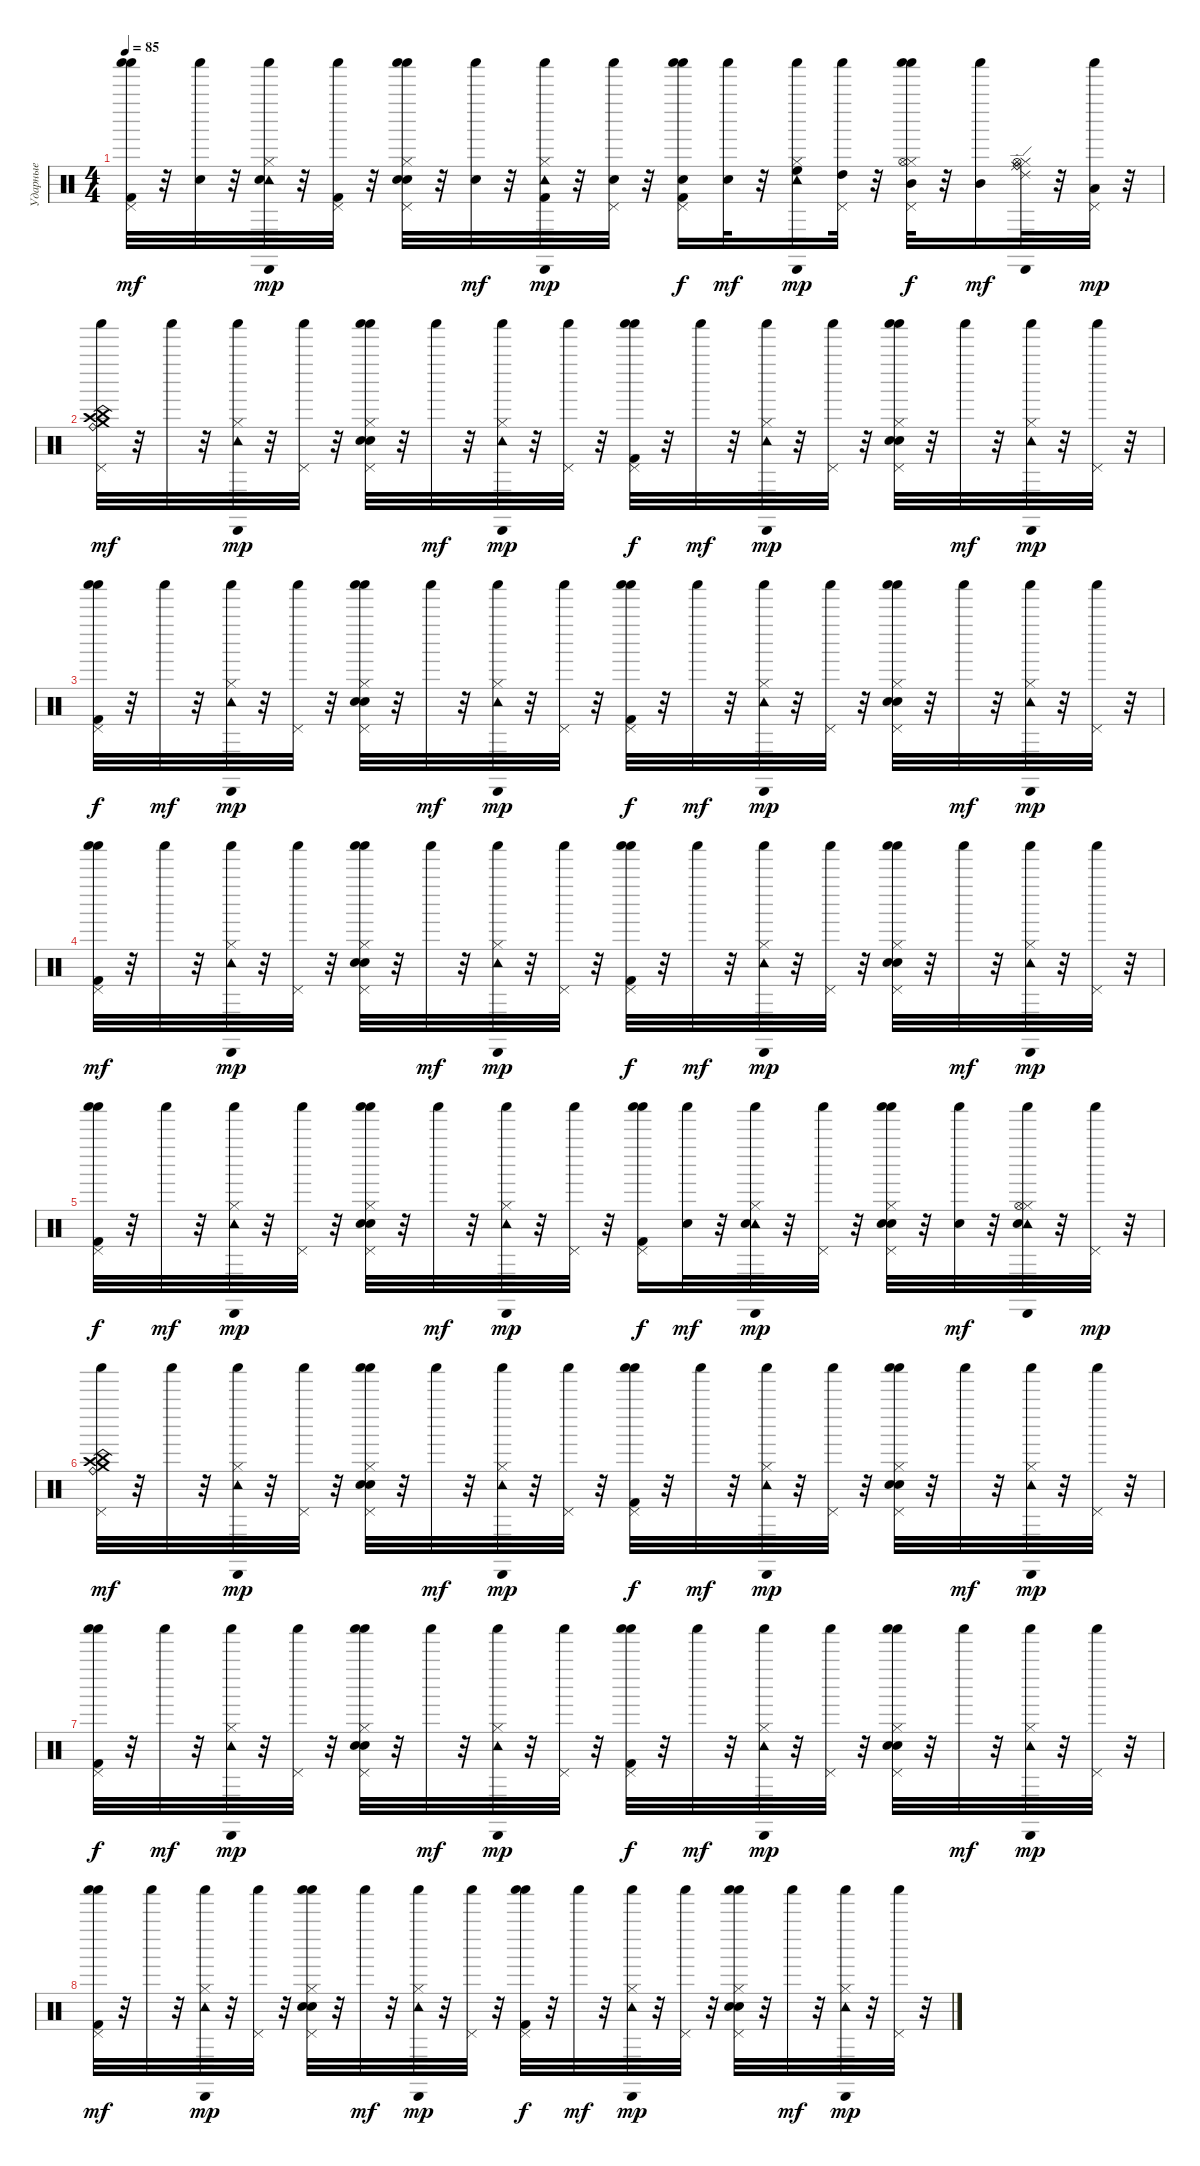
\track ("Ударные" "Ударные") {instrument percussion}
\staff {score}
\articulation defaults
\ts (4 4)
\tempo 85
\clef neutral
\ks c
("Pedal Hi-Hat (hit)" "Shaker (hit)" "Shaker (hit)" "Kick (hit) 2").32{dy mf} r.32 ("Shaker (hit)" "Snare (hit) 2").32 r.32 ("Hi-Hat (closed)" "Cabasa (hit)" "Shaker (hit)" "Tambourine (hit)" "Snare (hit) 2").32{dy mp} r.32 ("Pedal Hi-Hat (hit)" "Shaker (hit)" "Kick (hit) 2").32 r.32 ("Hi-Hat (closed)" "Pedal Hi-Hat (hit)" "Shaker (hit)" "Shaker (hit)" "Snare (hit) 2" "Electric Snare (hit)").32 r.32 ("Shaker (hit)" "Snare (hit) 2").32{dy mf} r.32 ("Hi-Hat (closed)" "Cabasa (hit)" "Shaker (hit)" "Kick (hit) 2" "Tambourine (hit)").32{dy mp} r.32 ("Pedal Hi-Hat (hit)" "Shaker (hit)" "Snare (hit) 2").32 r.32 ("Pedal Hi-Hat (hit)" "Shaker (hit)" "Shaker (hit)" "Kick (hit) 2" "Snare (hit) 2").16{dy f} ("Shaker (hit)" "Snare (hit) 2").32{dy mf} r.32 ("High Floor Tom (hit)" "Hi-Hat (closed)" "Cabasa (hit)" "Shaker (hit)" "Tambourine (hit)").16{dy mp} ("High Tom (hit)" "Pedal Hi-Hat (hit)" "Shaker (hit)").32 r.32 ("Mid Tom (hit)" "Hi-Hat (closed)" "Hi-Hat (open)" "Pedal Hi-Hat (hit)" "Shaker (hit)" "Shaker (hit)").32{dy f} r.32 ("Mid Tom (hit)" "Shaker (hit)").16{dy mf} ("Ride (middle)" "Ride (bell)" "Hi-Hat (closed)" "Hi-Hat (open)" "Ride (edge) 2" "Cabasa (hit)").32 r.32 ("Pedal Hi-Hat (hit)" "Shaker (hit)" "Low Floor Tom (hit)").32{dy mp} r.32 |
("Ride (bell)" "Crash high (hit)" "China (hit)" "Crash medium (hit)" "Pedal Hi-Hat (hit)" "Shaker (hit)").32{dy mf} r.32 "Shaker (hit)".32 r.32 ("Hi-Hat (closed)" "Cabasa (hit)" "Shaker (hit)" "Tambourine (hit)").32{dy mp} r.32 ("Pedal Hi-Hat (hit)" "Shaker (hit)").32 r.32 ("Hi-Hat (closed)" "Pedal Hi-Hat (hit)" "Shaker (hit)" "Shaker (hit)" "Snare (hit) 2" "Electric Snare (hit)").32 r.32 "Shaker (hit)".32{dy mf} r.32 ("Hi-Hat (closed)" "Cabasa (hit)" "Shaker (hit)" "Tambourine (hit)").32{dy mp} r.32 ("Pedal Hi-Hat (hit)" "Shaker (hit)").32 r.32 ("Pedal Hi-Hat (hit)" "Shaker (hit)" "Shaker (hit)" "Kick (hit) 2").32{dy f} r.32 "Shaker (hit)".32{dy mf} r.32 ("Hi-Hat (closed)" "Cabasa (hit)" "Shaker (hit)" "Tambourine (hit)").32{dy mp} r.32 ("Pedal Hi-Hat (hit)" "Shaker (hit)").32 r.32 ("Hi-Hat (closed)" "Pedal Hi-Hat (hit)" "Shaker (hit)" "Shaker (hit)" "Snare (hit) 2" "Electric Snare (hit)").32 r.32 "Shaker (hit)".32{dy mf} r.32 ("Hi-Hat (closed)" "Cabasa (hit)" "Shaker (hit)" "Tambourine (hit)").32{dy mp} r.32 ("Pedal Hi-Hat (hit)" "Shaker (hit)").32 r.32 |
("Pedal Hi-Hat (hit)" "Shaker (hit)" "Shaker (hit)" "Kick (hit) 2").32{dy f} r.32 "Shaker (hit)".32{dy mf} r.32 ("Hi-Hat (closed)" "Cabasa (hit)" "Shaker (hit)" "Tambourine (hit)").32{dy mp} r.32 ("Pedal Hi-Hat (hit)" "Shaker (hit)").32 r.32 ("Hi-Hat (closed)" "Pedal Hi-Hat (hit)" "Shaker (hit)" "Shaker (hit)" "Snare (hit) 2" "Electric Snare (hit)").32 r.32 "Shaker (hit)".32{dy mf} r.32 ("Hi-Hat (closed)" "Cabasa (hit)" "Shaker (hit)" "Tambourine (hit)").32{dy mp} r.32 ("Pedal Hi-Hat (hit)" "Shaker (hit)").32 r.32 ("Pedal Hi-Hat (hit)" "Shaker (hit)" "Shaker (hit)" "Kick (hit) 2").32{dy f} r.32 "Shaker (hit)".32{dy mf} r.32 ("Hi-Hat (closed)" "Cabasa (hit)" "Shaker (hit)" "Tambourine (hit)").32{dy mp} r.32 ("Pedal Hi-Hat (hit)" "Shaker (hit)").32 r.32 ("Hi-Hat (closed)" "Pedal Hi-Hat (hit)" "Shaker (hit)" "Shaker (hit)" "Snare (hit) 2" "Electric Snare (hit)").32 r.32 "Shaker (hit)".32{dy mf} r.32 ("Hi-Hat (closed)" "Cabasa (hit)" "Shaker (hit)" "Tambourine (hit)").32{dy mp} r.32 ("Pedal Hi-Hat (hit)" "Shaker (hit)").32 r.32 |
("Pedal Hi-Hat (hit)" "Shaker (hit)" "Shaker (hit)" "Kick (hit) 2").32{dy mf} r.32 "Shaker (hit)".32 r.32 ("Hi-Hat (closed)" "Cabasa (hit)" "Shaker (hit)" "Tambourine (hit)").32{dy mp} r.32 ("Pedal Hi-Hat (hit)" "Shaker (hit)").32 r.32 ("Hi-Hat (closed)" "Pedal Hi-Hat (hit)" "Shaker (hit)" "Shaker (hit)" "Snare (hit) 2" "Electric Snare (hit)").32 r.32 "Shaker (hit)".32{dy mf} r.32 ("Hi-Hat (closed)" "Cabasa (hit)" "Shaker (hit)" "Tambourine (hit)").32{dy mp} r.32 ("Pedal Hi-Hat (hit)" "Shaker (hit)").32 r.32 ("Pedal Hi-Hat (hit)" "Shaker (hit)" "Shaker (hit)" "Kick (hit) 2").32{dy f} r.32 "Shaker (hit)".32{dy mf} r.32 ("Hi-Hat (closed)" "Cabasa (hit)" "Shaker (hit)" "Tambourine (hit)").32{dy mp} r.32 ("Pedal Hi-Hat (hit)" "Shaker (hit)").32 r.32 ("Hi-Hat (closed)" "Pedal Hi-Hat (hit)" "Shaker (hit)" "Shaker (hit)" "Snare (hit) 2" "Electric Snare (hit)").32 r.32 "Shaker (hit)".32{dy mf} r.32 ("Hi-Hat (closed)" "Cabasa (hit)" "Shaker (hit)" "Tambourine (hit)").32{dy mp} r.32 ("Pedal Hi-Hat (hit)" "Shaker (hit)").32 r.32 |
("Pedal Hi-Hat (hit)" "Shaker (hit)" "Shaker (hit)" "Kick (hit) 2").32{dy f} r.32 "Shaker (hit)".32{dy mf} r.32 ("Hi-Hat (closed)" "Cabasa (hit)" "Shaker (hit)" "Tambourine (hit)").32{dy mp} r.32 ("Pedal Hi-Hat (hit)" "Shaker (hit)").32 r.32 ("Hi-Hat (closed)" "Pedal Hi-Hat (hit)" "Shaker (hit)" "Shaker (hit)" "Snare (hit) 2" "Electric Snare (hit)").32 r.32 "Shaker (hit)".32{dy mf} r.32 ("Hi-Hat (closed)" "Cabasa (hit)" "Shaker (hit)" "Tambourine (hit)").32{dy mp} r.32 ("Pedal Hi-Hat (hit)" "Shaker (hit)").32 r.32 ("Pedal Hi-Hat (hit)" "Shaker (hit)" "Shaker (hit)" "Kick (hit) 2").16{dy f} ("Shaker (hit)" "Snare (hit) 2").32{dy mf} r.32 ("Hi-Hat (closed)" "Cabasa (hit)" "Shaker (hit)" "Tambourine (hit)" "Snare (hit) 2").32{dy mp} r.32 ("Pedal Hi-Hat (hit)" "Shaker (hit)").32 r.32 ("Hi-Hat (closed)" "Pedal Hi-Hat (hit)" "Shaker (hit)" "Shaker (hit)" "Snare (hit) 2" "Electric Snare (hit)").32 r.32 ("Shaker (hit)" "Snare (hit) 2").32{dy mf} r.32 ("Hi-Hat (closed)" "Hi-Hat (open)" "Cabasa (hit)" "Shaker (hit)" "Tambourine (hit)" "Snare (hit) 2").32 r.32 ("Pedal Hi-Hat (hit)" "Shaker (hit)").32{dy mp} r.32 |
("Ride (bell)" "Crash high (hit)" "China (hit)" "Crash medium (hit)" "Pedal Hi-Hat (hit)" "Shaker (hit)").32{dy mf} r.32 "Shaker (hit)".32 r.32 ("Hi-Hat (closed)" "Cabasa (hit)" "Shaker (hit)" "Tambourine (hit)").32{dy mp} r.32 ("Pedal Hi-Hat (hit)" "Shaker (hit)").32 r.32 ("Hi-Hat (closed)" "Pedal Hi-Hat (hit)" "Shaker (hit)" "Shaker (hit)" "Snare (hit) 2" "Electric Snare (hit)").32 r.32 "Shaker (hit)".32{dy mf} r.32 ("Hi-Hat (closed)" "Cabasa (hit)" "Shaker (hit)" "Tambourine (hit)").32{dy mp} r.32 ("Pedal Hi-Hat (hit)" "Shaker (hit)").32 r.32 ("Pedal Hi-Hat (hit)" "Shaker (hit)" "Shaker (hit)" "Kick (hit) 2").32{dy f} r.32 "Shaker (hit)".32{dy mf} r.32 ("Hi-Hat (closed)" "Cabasa (hit)" "Shaker (hit)" "Tambourine (hit)").32{dy mp} r.32 ("Pedal Hi-Hat (hit)" "Shaker (hit)").32 r.32 ("Hi-Hat (closed)" "Pedal Hi-Hat (hit)" "Shaker (hit)" "Shaker (hit)" "Snare (hit) 2" "Electric Snare (hit)").32 r.32 "Shaker (hit)".32{dy mf} r.32 ("Hi-Hat (closed)" "Cabasa (hit)" "Shaker (hit)" "Tambourine (hit)").32{dy mp} r.32 ("Pedal Hi-Hat (hit)" "Shaker (hit)").32 r.32 |
("Pedal Hi-Hat (hit)" "Shaker (hit)" "Shaker (hit)" "Kick (hit) 2").32{dy f} r.32 "Shaker (hit)".32{dy mf} r.32 ("Hi-Hat (closed)" "Cabasa (hit)" "Shaker (hit)" "Tambourine (hit)").32{dy mp} r.32 ("Pedal Hi-Hat (hit)" "Shaker (hit)").32 r.32 ("Hi-Hat (closed)" "Pedal Hi-Hat (hit)" "Shaker (hit)" "Shaker (hit)" "Snare (hit) 2" "Electric Snare (hit)").32 r.32 "Shaker (hit)".32{dy mf} r.32 ("Hi-Hat (closed)" "Cabasa (hit)" "Shaker (hit)" "Tambourine (hit)").32{dy mp} r.32 ("Pedal Hi-Hat (hit)" "Shaker (hit)").32 r.32 ("Pedal Hi-Hat (hit)" "Shaker (hit)" "Shaker (hit)" "Kick (hit) 2").32{dy f} r.32 "Shaker (hit)".32{dy mf} r.32 ("Hi-Hat (closed)" "Cabasa (hit)" "Shaker (hit)" "Tambourine (hit)").32{dy mp} r.32 ("Pedal Hi-Hat (hit)" "Shaker (hit)").32 r.32 ("Hi-Hat (closed)" "Pedal Hi-Hat (hit)" "Shaker (hit)" "Shaker (hit)" "Snare (hit) 2" "Electric Snare (hit)").32 r.32 "Shaker (hit)".32{dy mf} r.32 ("Hi-Hat (closed)" "Cabasa (hit)" "Shaker (hit)" "Tambourine (hit)").32{dy mp} r.32 ("Pedal Hi-Hat (hit)" "Shaker (hit)").32 r.32 |
("Pedal Hi-Hat (hit)" "Shaker (hit)" "Shaker (hit)" "Kick (hit) 2").32{dy mf} r.32 "Shaker (hit)".32 r.32 ("Hi-Hat (closed)" "Cabasa (hit)" "Shaker (hit)" "Tambourine (hit)").32{dy mp} r.32 ("Pedal Hi-Hat (hit)" "Shaker (hit)").32 r.32 ("Hi-Hat (closed)" "Pedal Hi-Hat (hit)" "Shaker (hit)" "Shaker (hit)" "Snare (hit) 2" "Electric Snare (hit)").32 r.32 "Shaker (hit)".32{dy mf} r.32 ("Hi-Hat (closed)" "Cabasa (hit)" "Shaker (hit)" "Tambourine (hit)").32{dy mp} r.32 ("Pedal Hi-Hat (hit)" "Shaker (hit)").32 r.32 ("Pedal Hi-Hat (hit)" "Shaker (hit)" "Shaker (hit)" "Kick (hit) 2").32{dy f} r.32 "Shaker (hit)".32{dy mf} r.32 ("Hi-Hat (closed)" "Cabasa (hit)" "Shaker (hit)" "Tambourine (hit)").32{dy mp} r.32 ("Pedal Hi-Hat (hit)" "Shaker (hit)").32 r.32 ("Hi-Hat (closed)" "Pedal Hi-Hat (hit)" "Shaker (hit)" "Shaker (hit)" "Snare (hit) 2" "Electric Snare (hit)").32 r.32 "Shaker (hit)".32{dy mf} r.32 ("Hi-Hat (closed)" "Cabasa (hit)" "Shaker (hit)" "Tambourine (hit)").32{dy mp} r.32 ("Pedal Hi-Hat (hit)" "Shaker (hit)").32 r.32
